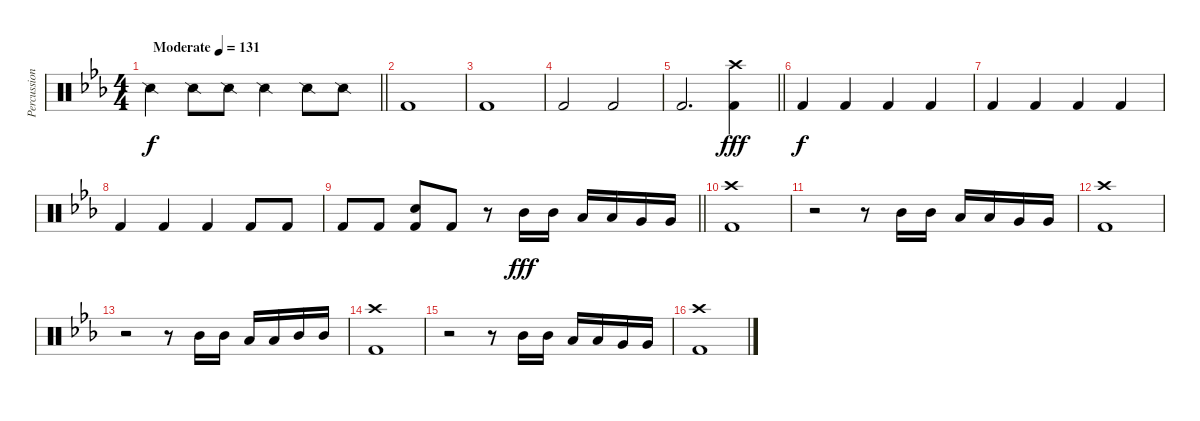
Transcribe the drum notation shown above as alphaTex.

\track ("Percussion" "Percussion") {instrument percussion}
\staff {score}
\articulation defaults
\ts (4 4)
\tempo (131 "Moderate")
\clef neutral
\barLineRight lightlight
\ks cminor "Snare (side stick) 2".4{dy f} "Snare (side stick) 2".8 "Snare (side stick) 2".8 "Snare (side stick) 2".4 "Snare (side stick) 2".8 "Snare (side stick) 2".8
|
"Kick (hit) 2".1 |
"Kick (hit) 2".1 |
"Kick (hit) 2".2 "Kick (hit) 2".2 |
\barLineRight lightlight "Kick (hit) 2".2{d}
("Kick (hit) 2" "Crash high (hit)").4{dy fff} |
"Kick (hit) 2".4{dy f} "Kick (hit) 2".4 "Kick (hit) 2".4 "Kick (hit) 2".4 |
"Kick (hit) 2".4 "Kick (hit) 2".4 "Kick (hit) 2".4 "Kick (hit) 2".4 |
"Kick (hit) 2".4 "Kick (hit) 2".4 "Kick (hit) 2".4 "Kick (hit) 2".8 "Kick (hit) 2".8 |
\barLineRight lightlight "Kick (hit) 2".8 "Kick (hit) 2".8
("Kick (hit) 2" "Electric Snare (hit)").8 "Kick (hit) 2".8 r.8 "Mid Tom (hit)".16{dy fff} "Mid Tom (hit)".16 "Low Tom (hit)".16 "Low Tom (hit)".16 "Very Low Tom (hit)".16 "Very Low Tom (hit)".16 |
("Kick (hit) 2" "Crash high (hit)").1 |
r.2 r.8 "Mid Tom (hit)".16 "Mid Tom (hit)".16 "Low Tom (hit)".16 "Low Tom (hit)".16 "Very Low Tom (hit)".16 "Very Low Tom (hit)".16 |
("Kick (hit) 2" "Crash high (hit)").1 |
r.2 r.8 "Mid Tom (hit)".16 "Mid Tom (hit)".16 "Low Tom (hit)".16 "Low Tom (hit)".16 "Mid Tom (hit)".16 "Mid Tom (hit)".16 |
("Kick (hit) 2" "Crash high (hit)").1 |
r.2 r.8 "Mid Tom (hit)".16 "Mid Tom (hit)".16 "Low Tom (hit)".16 "Low Tom (hit)".16 "Very Low Tom (hit)".16 "Very Low Tom (hit)".16 |
("Kick (hit) 2" "Crash high (hit)").1
